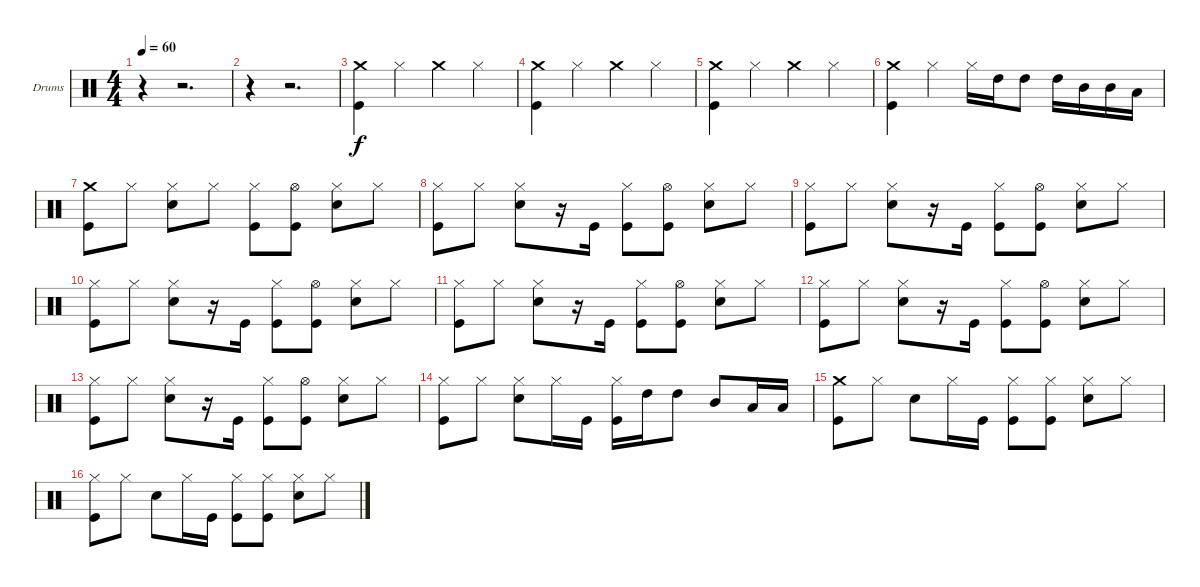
\defaultSystemsLayout 4
\bracketExtendMode groupsimilarinstruments
\firstSystemTrackNameOrientation horizontal
\otherSystemsTrackNameOrientation horizontal
\track ("Drumkit" "Drums") {instrument percussion}
\staff {score}
\articulation defaults
\ts (4 4)
\tempo 60
\clef neutral
\scale
0.333333
\ks c
r.4{dy f} r.2{d} |
\scale
0.333333 r.4 r.2{d} |
\scale
0.333333 ("Kick (hit)" "Crash medium (hit)").4 "Hi-Hat (closed)".4 "Crash medium (hit)".4 "Hi-Hat (closed)".4 |
\scale
0.333333 ("Kick (hit)" "Crash medium (hit)").4 "Hi-Hat (closed)".4 "Crash medium (hit)".4 "Hi-Hat (closed)".4 |
\scale
0.333333 ("Kick (hit)" "Crash medium (hit)").4 "Hi-Hat (closed)".4 "Crash medium (hit)".4 "Hi-Hat (closed)".4 |
\scale
0.333333 ("Kick (hit)" "Crash medium (hit)").4 "Hi-Hat (closed)".4 "Hi-Hat (closed)".16 "High Tom (hit)".16 "High Tom (hit)".8 "High Tom (hit)".16 "Mid Tom (hit)".16 "Mid Tom (hit)".16 "Low Tom (hit)".16 |
\scale
0.333333 ("Kick (hit)" "Crash medium (hit)").8 "Hi-Hat (closed)".8 ("Hi-Hat (closed)" "Snare (hit) 2").8 "Hi-Hat (closed)".8 ("Hi-Hat (closed)" "Kick (hit)").8 ("Hi-Hat (open)" "Kick (hit)").8 ("Hi-Hat (closed)" "Snare (hit) 2").8 "Hi-Hat (closed)".8 |
\scale
0.333333 ("Hi-Hat (closed)" "Kick (hit)").8 "Hi-Hat (closed)".8 ("Hi-Hat (closed)" "Snare (hit) 2").8 r.16 "Kick (hit)".16 ("Hi-Hat (closed)" "Kick (hit)").8 ("Hi-Hat (open)" "Kick (hit)").8 ("Hi-Hat (closed)" "Snare (hit) 2").8 "Hi-Hat (closed)".8 |
\scale
0.333333 ("Hi-Hat (closed)" "Kick (hit)").8 "Hi-Hat (closed)".8 ("Hi-Hat (closed)" "Snare (hit) 2").8 r.16 "Kick (hit)".16 ("Hi-Hat (closed)" "Kick (hit)").8 ("Hi-Hat (open)" "Kick (hit)").8 ("Hi-Hat (closed)" "Snare (hit) 2").8 "Hi-Hat (closed)".8 |
\scale
0.333333 ("Hi-Hat (closed)" "Kick (hit)").8 "Hi-Hat (closed)".8 ("Hi-Hat (closed)" "Snare (hit) 2").8 r.16 "Kick (hit)".16 ("Hi-Hat (closed)" "Kick (hit)").8 ("Hi-Hat (open)" "Kick (hit)").8 ("Hi-Hat (closed)" "Snare (hit) 2").8 "Hi-Hat (closed)".8 |
\scale
0.333333 ("Hi-Hat (closed)" "Kick (hit)").8 "Hi-Hat (closed)".8 ("Hi-Hat (closed)" "Snare (hit) 2").8 r.16 "Kick (hit)".16 ("Hi-Hat (closed)" "Kick (hit)").8 ("Hi-Hat (open)" "Kick (hit)").8 ("Hi-Hat (closed)" "Snare (hit) 2").8 "Hi-Hat (closed)".8 |
\scale
0.333333 ("Hi-Hat (closed)" "Kick (hit)").8 "Hi-Hat (closed)".8 ("Hi-Hat (closed)" "Snare (hit) 2").8 r.16 "Kick (hit)".16 ("Hi-Hat (closed)" "Kick (hit)").8 ("Hi-Hat (open)" "Kick (hit)").8 ("Hi-Hat (closed)" "Snare (hit) 2").8 "Hi-Hat (closed)".8 |
\scale
0.333333 ("Hi-Hat (closed)" "Kick (hit)").8 "Hi-Hat (closed)".8 ("Hi-Hat (closed)" "Snare (hit) 2").8 r.16 "Kick (hit)".16 ("Hi-Hat (closed)" "Kick (hit)").8 ("Hi-Hat (open)" "Kick (hit)").8 ("Hi-Hat (closed)" "Snare (hit) 2").8 "Hi-Hat (closed)".8 |
\scale
0.333333 ("Hi-Hat (closed)" "Kick (hit)").8 "Hi-Hat (closed)".8 ("Hi-Hat (closed)" "Snare (hit) 2").8 "Hi-Hat (closed)".16 "Kick (hit)".16 ("Hi-Hat (closed)" "Kick (hit)").16 "High Tom (hit)".16 "High Tom (hit)".8 "Mid Tom (hit)".8 "Low Tom (hit)".16 "Low Tom (hit)".16 |
\scale
0.333333 ("Kick (hit)" "Crash medium (hit)").8 "Hi-Hat (closed)".8 "Snare (hit) 2".8 "Hi-Hat (closed)".16 "Kick (hit)".16 ("Hi-Hat (closed)" "Kick (hit)").8 ("Hi-Hat (closed)" "Kick (hit)").8 ("Hi-Hat (closed)" "Snare (hit) 2").8 "Hi-Hat (closed)".8 |
\scale
0.333333 ("Hi-Hat (closed)" "Kick (hit)").8 "Hi-Hat (closed)".8 "Snare (hit) 2".8 "Hi-Hat (closed)".16 "Kick (hit)".16 ("Hi-Hat (closed)" "Kick (hit)").8 ("Hi-Hat (closed)" "Kick (hit)").8 ("Hi-Hat (closed)" "Snare (hit) 2").8 "Hi-Hat (closed)".8
